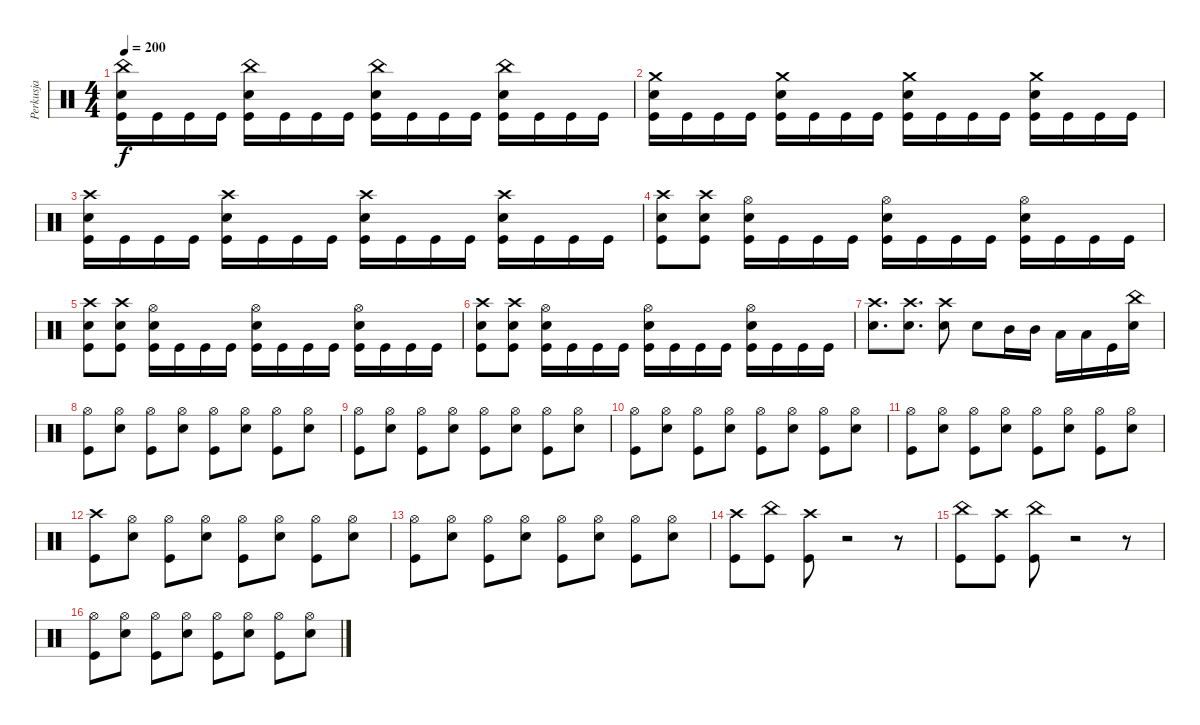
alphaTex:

\track ("Perkusja" "Perkusja") {instrument percussion}
\staff {score}
\articulation defaults
\ts (4 4)
\tempo 200
\clef neutral
\ks c
("China (hit)" "Electric Snare (hit)" "Kick (hit)").16{dy f} "Kick (hit)".16 "Kick (hit)".16 "Kick (hit)".16 ("China (hit)" "Electric Snare (hit)" "Kick (hit)").16 "Kick (hit)".16 "Kick (hit)".16 "Kick (hit)".16 ("China (hit)" "Electric Snare (hit)" "Kick (hit)").16 "Kick (hit)".16 "Kick (hit)".16 "Kick (hit)".16 ("China (hit)" "Electric Snare (hit)" "Kick (hit)").16 "Kick (hit)".16 "Kick (hit)".16 "Kick (hit)".16 |
("Crash medium (hit)" "Electric Snare (hit)" "Kick (hit)").16 "Kick (hit)".16 "Kick (hit)".16 "Kick (hit)".16 ("Crash medium (hit)" "Electric Snare (hit)" "Kick (hit)").16 "Kick (hit)".16 "Kick (hit)".16 "Kick (hit)".16 ("Crash medium (hit)" "Electric Snare (hit)" "Kick (hit)").16 "Kick (hit)".16 "Kick (hit)".16 "Kick (hit)".16 ("Crash medium (hit)" "Electric Snare (hit)" "Kick (hit)").16 "Kick (hit)".16 "Kick (hit)".16 "Kick (hit)".16 |
("Crash high (hit)" "Electric Snare (hit)" "Kick (hit)").16 "Kick (hit)".16 "Kick (hit)".16 "Kick (hit)".16 ("Crash high (hit)" "Electric Snare (hit)" "Kick (hit)").16 "Kick (hit)".16 "Kick (hit)".16 "Kick (hit)".16 ("Crash high (hit)" "Electric Snare (hit)" "Kick (hit)").16 "Kick (hit)".16 "Kick (hit)".16 "Kick (hit)".16 ("Crash high (hit)" "Electric Snare (hit)" "Kick (hit)").16 "Kick (hit)".16 "Kick (hit)".16 "Kick (hit)".16 |
("Crash high (hit)" "Electric Snare (hit)" "Kick (hit)").8 ("Crash high (hit)" "Electric Snare (hit)" "Kick (hit)").8 ("Hi-Hat (open)" "Electric Snare (hit)" "Kick (hit)").16 "Kick (hit)".16 "Kick (hit)".16 "Kick (hit)".16 ("Hi-Hat (open)" "Electric Snare (hit)" "Kick (hit)").16 "Kick (hit)".16 "Kick (hit)".16 "Kick (hit)".16 ("Hi-Hat (open)" "Electric Snare (hit)" "Kick (hit)").16 "Kick (hit)".16 "Kick (hit)".16 "Kick (hit)".16 |
("Crash high (hit)" "Electric Snare (hit)" "Kick (hit)").8 ("Crash high (hit)" "Electric Snare (hit)" "Kick (hit)").8 ("Hi-Hat (open)" "Electric Snare (hit)" "Kick (hit)").16 "Kick (hit)".16 "Kick (hit)".16 "Kick (hit)".16 ("Hi-Hat (open)" "Electric Snare (hit)" "Kick (hit)").16 "Kick (hit)".16 "Kick (hit)".16 "Kick (hit)".16 ("Hi-Hat (open)" "Electric Snare (hit)" "Kick (hit)").16 "Kick (hit)".16 "Kick (hit)".16 "Kick (hit)".16 |
("Crash high (hit)" "Electric Snare (hit)" "Kick (hit)").8 ("Crash high (hit)" "Electric Snare (hit)" "Kick (hit)").8 ("Hi-Hat (open)" "Electric Snare (hit)" "Kick (hit)").16 "Kick (hit)".16 "Kick (hit)".16 "Kick (hit)".16 ("Hi-Hat (open)" "Electric Snare (hit)" "Kick (hit)").16 "Kick (hit)".16 "Kick (hit)".16 "Kick (hit)".16 ("Hi-Hat (open)" "Electric Snare (hit)" "Kick (hit)").16 "Kick (hit)".16 "Kick (hit)".16 "Kick (hit)".16 |
("Crash high (hit)" "Electric Snare (hit)").8{d} ("Crash high (hit)" "Electric Snare (hit)").8{d} ("Crash high (hit)" "Electric Snare (hit)").8 "Electric Snare (hit)".8 "Mid Tom (hit)".16 "Mid Tom (hit)".16 "Low Tom (hit)".16 "Low Tom (hit)".16 "Kick (hit)".16 ("China (hit)" "Electric Snare (hit)").16 |
("Hi-Hat (open)" "Kick (hit)").8 ("Hi-Hat (open)" "Electric Snare (hit)").8 ("Hi-Hat (open)" "Kick (hit)").8 ("Hi-Hat (open)" "Electric Snare (hit)").8 ("Hi-Hat (open)" "Kick (hit)").8 ("Hi-Hat (open)" "Electric Snare (hit)").8 ("Hi-Hat (open)" "Kick (hit)").8 ("Hi-Hat (open)" "Electric Snare (hit)").8 |
("Hi-Hat (open)" "Kick (hit)").8 ("Hi-Hat (open)" "Electric Snare (hit)").8 ("Hi-Hat (open)" "Kick (hit)").8 ("Hi-Hat (open)" "Electric Snare (hit)").8 ("Hi-Hat (open)" "Kick (hit)").8 ("Hi-Hat (open)" "Electric Snare (hit)").8 ("Hi-Hat (open)" "Kick (hit)").8 ("Hi-Hat (open)" "Electric Snare (hit)").8 |
("Hi-Hat (open)" "Kick (hit)").8 ("Hi-Hat (open)" "Electric Snare (hit)").8 ("Hi-Hat (open)" "Kick (hit)").8 ("Hi-Hat (open)" "Electric Snare (hit)").8 ("Hi-Hat (open)" "Kick (hit)").8 ("Hi-Hat (open)" "Electric Snare (hit)").8 ("Hi-Hat (open)" "Kick (hit)").8 ("Hi-Hat (open)" "Electric Snare (hit)").8 |
("Hi-Hat (open)" "Kick (hit)").8 ("Hi-Hat (open)" "Electric Snare (hit)").8 ("Hi-Hat (open)" "Kick (hit)").8 ("Hi-Hat (open)" "Electric Snare (hit)").8 ("Hi-Hat (open)" "Kick (hit)").8 ("Hi-Hat (open)" "Electric Snare (hit)").8 ("Hi-Hat (open)" "Kick (hit)").8 ("Hi-Hat (open)" "Electric Snare (hit)").8 |
("Crash high (hit)" "Kick (hit)").8 ("Hi-Hat (open)" "Electric Snare (hit)").8 ("Hi-Hat (open)" "Kick (hit)").8 ("Hi-Hat (open)" "Electric Snare (hit)").8 ("Hi-Hat (open)" "Kick (hit)").8 ("Hi-Hat (open)" "Electric Snare (hit)").8 ("Hi-Hat (open)" "Kick (hit)").8 ("Hi-Hat (open)" "Electric Snare (hit)").8 |
("Hi-Hat (open)" "Kick (hit)").8 ("Hi-Hat (open)" "Electric Snare (hit)").8 ("Hi-Hat (open)" "Kick (hit)").8 ("Hi-Hat (open)" "Electric Snare (hit)").8 ("Hi-Hat (open)" "Kick (hit)").8 ("Hi-Hat (open)" "Electric Snare (hit)").8 ("Hi-Hat (open)" "Kick (hit)").8 ("Hi-Hat (open)" "Electric Snare (hit)").8 |
("Crash high (hit)" "Kick (hit)").8 ("China (hit)" "Kick (hit)").8 ("Crash high (hit)" "Kick (hit)").8 r.2 r.8 |
("China (hit)" "Kick (hit)").8 ("Crash high (hit)" "Kick (hit)").8 ("China (hit)" "Kick (hit)").8 r.2 r.8 |
("Hi-Hat (open)" "Kick (hit)").8 ("Hi-Hat (open)" "Electric Snare (hit)").8 ("Hi-Hat (open)" "Kick (hit)").8 ("Hi-Hat (open)" "Electric Snare (hit)").8 ("Hi-Hat (open)" "Kick (hit)").8 ("Hi-Hat (open)" "Electric Snare (hit)").8 ("Hi-Hat (open)" "Kick (hit)").8 ("Hi-Hat (open)" "Electric Snare (hit)").8
